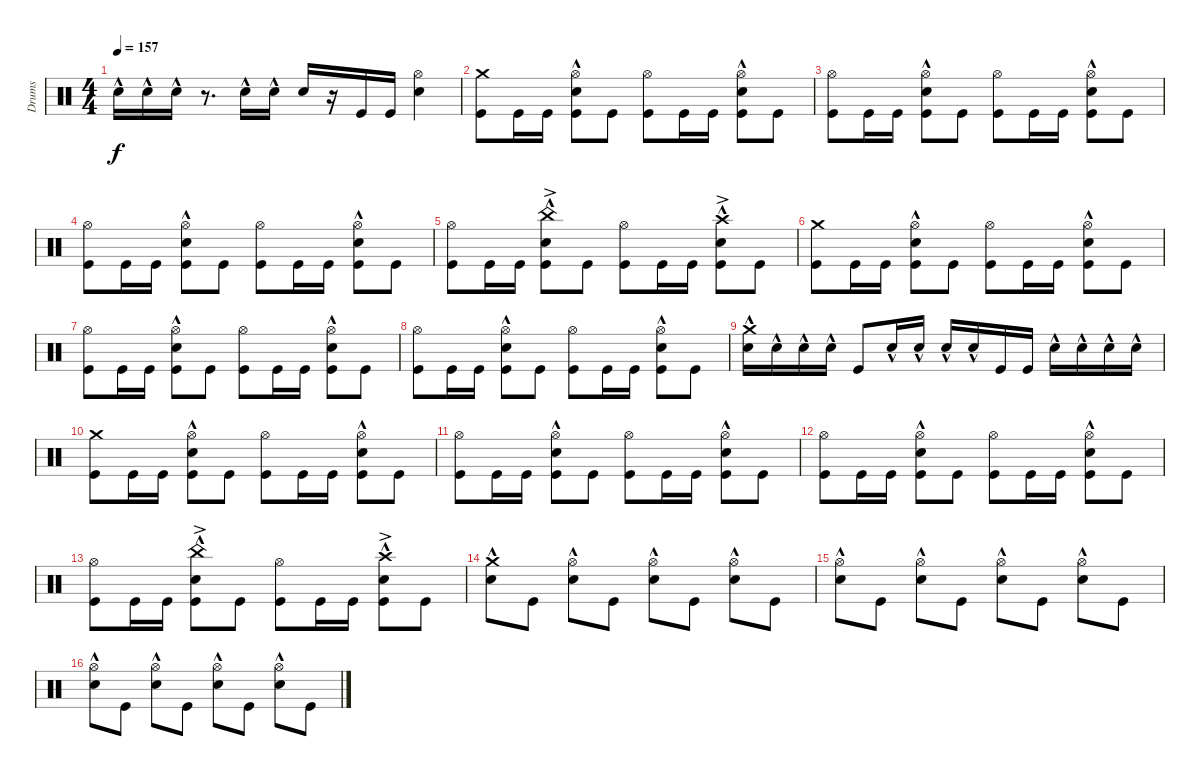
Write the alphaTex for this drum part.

\track ("Drums" "Drums") {solo instrument percussion}
\staff {score}
\articulation defaults
\ts (4 4)
\tempo 157
\clef neutral
\ks c "Snare (hit) 2"{hac}.16{dy f} "Snare (hit) 2"{hac}.16 "Snare (hit) 2"{hac}.16
r.8{d} "Snare (hit) 2"{hac}.16 "Snare (hit) 2"{hac}.16 "Snare (hit) 2".16 r.16 "Kick (hit)".16 "Kick (hit)".16 ("Snare (hit) 2" "Hi-Hat (open)").4 |
("Crash medium (hit)" "Kick (hit)").8 "Kick (hit)".16 "Kick (hit)".16 ("Snare (hit) 2"{hac} "Hi-Hat (open)" "Kick (hit)").8 "Kick (hit)".8 ("Kick (hit)" "Hi-Hat (open)").8 "Kick (hit)".16 "Kick (hit)".16 ("Snare (hit) 2"{hac} "Hi-Hat (open)" "Kick (hit)").8 "Kick (hit)".8 |
("Kick (hit)" "Hi-Hat (open)").8 "Kick (hit)".16 "Kick (hit)".16 ("Snare (hit) 2"{hac} "Hi-Hat (open)" "Kick (hit)").8 "Kick (hit)".8 ("Kick (hit)" "Hi-Hat (open)").8 "Kick (hit)".16 "Kick (hit)".16 ("Snare (hit) 2"{hac} "Hi-Hat (open)" "Kick (hit)").8 "Kick (hit)".8 |
("Kick (hit)" "Hi-Hat (open)").8 "Kick (hit)".16 "Kick (hit)".16 ("Snare (hit) 2"{hac} "Hi-Hat (open)" "Kick (hit)").8 "Kick (hit)".8 ("Kick (hit)" "Hi-Hat (open)").8 "Kick (hit)".16 "Kick (hit)".16 ("Snare (hit) 2"{hac} "Hi-Hat (open)" "Kick (hit)").8 "Kick (hit)".8 |
("Kick (hit)" "Hi-Hat (open)").8 "Kick (hit)".16 "Kick (hit)".16 ("Snare (hit) 2"{hac} "China (hit)"{ac} "Kick (hit)").8 "Kick (hit)".8 ("Kick (hit)" "Hi-Hat (open)").8 "Kick (hit)".16 "Kick (hit)".16 ("Snare (hit) 2"{hac} "Crash high (hit)"{ac} "Kick (hit)").8 "Kick (hit)".8 |
("Crash medium (hit)" "Kick (hit)").8 "Kick (hit)".16 "Kick (hit)".16 ("Snare (hit) 2"{hac} "Hi-Hat (open)" "Kick (hit)").8 "Kick (hit)".8 ("Kick (hit)" "Hi-Hat (open)").8 "Kick (hit)".16 "Kick (hit)".16 ("Snare (hit) 2"{hac} "Hi-Hat (open)" "Kick (hit)").8 "Kick (hit)".8 |
("Kick (hit)" "Hi-Hat (open)").8 "Kick (hit)".16 "Kick (hit)".16 ("Snare (hit) 2"{hac} "Hi-Hat (open)" "Kick (hit)").8 "Kick (hit)".8 ("Kick (hit)" "Hi-Hat (open)").8 "Kick (hit)".16 "Kick (hit)".16 ("Snare (hit) 2"{hac} "Hi-Hat (open)" "Kick (hit)").8 "Kick (hit)".8 |
("Kick (hit)" "Hi-Hat (open)").8 "Kick (hit)".16 "Kick (hit)".16 ("Snare (hit) 2"{hac} "Hi-Hat (open)" "Kick (hit)").8 "Kick (hit)".8 ("Kick (hit)" "Hi-Hat (open)").8 "Kick (hit)".16 "Kick (hit)".16 ("Snare (hit) 2"{hac} "Hi-Hat (open)" "Kick (hit)").8 "Kick (hit)".8 |
("Snare (hit) 2"{hac} "Crash medium (hit)").16 "Snare (hit) 2"{hac}.16 "Snare (hit) 2"{hac}.16 "Snare (hit) 2"{hac}.16 "Kick (hit)".8 "Snare (hit) 2"{hac}.16 "Snare (hit) 2"{hac}.16 "Snare (hit) 2"{hac}.16 "Snare (hit) 2"{hac}.16 "Kick (hit)".16 "Kick (hit)".16 "Snare (hit) 2"{hac}.16 "Snare (hit) 2"{hac}.16 "Snare (hit) 2"{hac}.16 "Snare (hit) 2"{hac}.16 |
("Crash medium (hit)" "Kick (hit)").8 "Kick (hit)".16 "Kick (hit)".16 ("Snare (hit) 2"{hac} "Hi-Hat (open)" "Kick (hit)").8 "Kick (hit)".8 ("Kick (hit)" "Hi-Hat (open)").8 "Kick (hit)".16 "Kick (hit)".16 ("Snare (hit) 2"{hac} "Hi-Hat (open)" "Kick (hit)").8 "Kick (hit)".8 |
("Kick (hit)" "Hi-Hat (open)").8 "Kick (hit)".16 "Kick (hit)".16 ("Snare (hit) 2"{hac} "Hi-Hat (open)" "Kick (hit)").8 "Kick (hit)".8 ("Kick (hit)" "Hi-Hat (open)").8 "Kick (hit)".16 "Kick (hit)".16 ("Snare (hit) 2"{hac} "Hi-Hat (open)" "Kick (hit)").8 "Kick (hit)".8 |
("Kick (hit)" "Hi-Hat (open)").8 "Kick (hit)".16 "Kick (hit)".16 ("Snare (hit) 2"{hac} "Hi-Hat (open)" "Kick (hit)").8 "Kick (hit)".8 ("Kick (hit)" "Hi-Hat (open)").8 "Kick (hit)".16 "Kick (hit)".16 ("Snare (hit) 2"{hac} "Hi-Hat (open)" "Kick (hit)").8 "Kick (hit)".8 |
("Kick (hit)" "Hi-Hat (open)").8 "Kick (hit)".16 "Kick (hit)".16 ("Snare (hit) 2"{hac} "China (hit)"{ac} "Kick (hit)").8 "Kick (hit)".8 ("Kick (hit)" "Hi-Hat (open)").8 "Kick (hit)".16 "Kick (hit)".16 ("Snare (hit) 2"{hac} "Crash high (hit)"{ac} "Kick (hit)").8 "Kick (hit)".8 |
("Snare (hit) 2"{hac} "Crash medium (hit)").8 "Kick (hit)".8 ("Snare (hit) 2"{hac} "Hi-Hat (open)").8 "Kick (hit)".8 ("Snare (hit) 2"{hac} "Hi-Hat (open)").8 "Kick (hit)".8 ("Snare (hit) 2"{hac} "Hi-Hat (open)").8 "Kick (hit)".8 |
("Snare (hit) 2"{hac} "Hi-Hat (open)").8 "Kick (hit)".8 ("Snare (hit) 2"{hac} "Hi-Hat (open)").8 "Kick (hit)".8 ("Snare (hit) 2"{hac} "Hi-Hat (open)").8 "Kick (hit)".8 ("Snare (hit) 2"{hac} "Hi-Hat (open)").8 "Kick (hit)".8 |
("Snare (hit) 2"{hac} "Hi-Hat (open)").8 "Kick (hit)".8 ("Snare (hit) 2"{hac} "Hi-Hat (open)").8 "Kick (hit)".8 ("Snare (hit) 2"{hac} "Hi-Hat (open)").8 "Kick (hit)".8 ("Snare (hit) 2"{hac} "Hi-Hat (open)").8 "Kick (hit)".8
